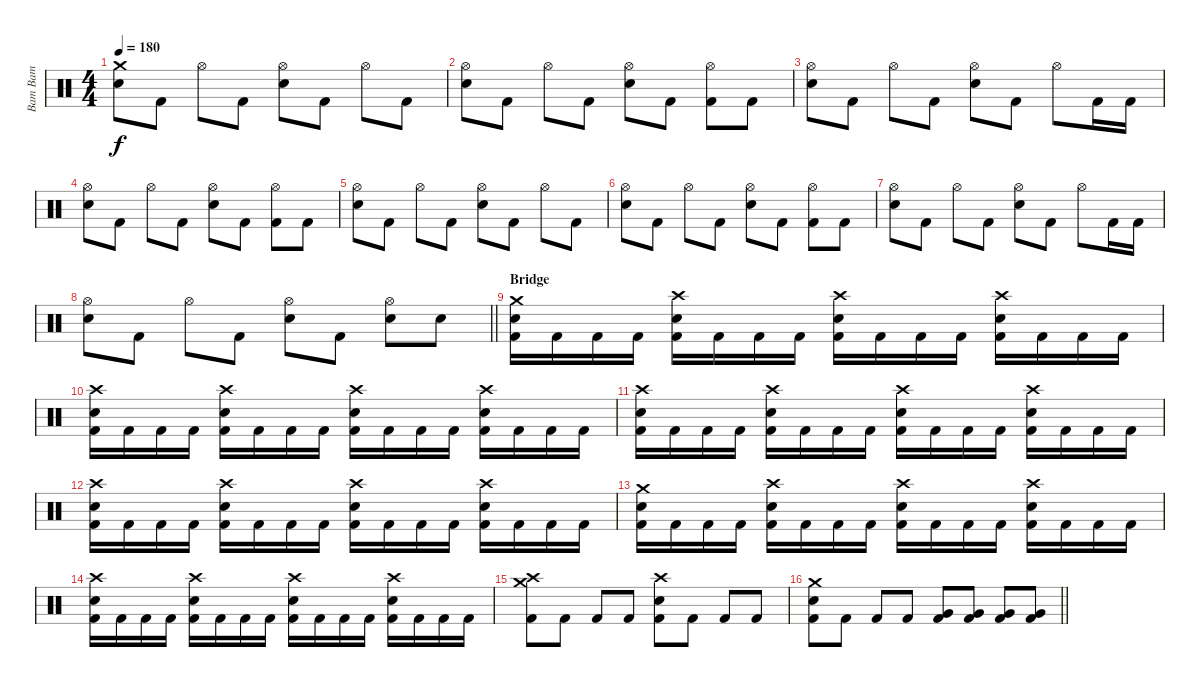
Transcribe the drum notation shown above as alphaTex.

\track ("Bam Bam" "Bam Bam") {instrument percussion}
\staff {score}
\articulation defaults
\ts (4 4)
\tempo 180
\clef neutral
\ks c
("Crash medium (hit)" "Electric Snare (hit)").8{dy f} "Kick (hit) 2".8 "Hi-Hat (open)".8 "Kick (hit) 2".8 ("Hi-Hat (open)" "Electric Snare (hit)").8 "Kick (hit) 2".8 "Hi-Hat (open)".8 "Kick (hit) 2".8 |
("Hi-Hat (open)" "Electric Snare (hit)").8 "Kick (hit) 2".8 "Hi-Hat (open)".8 "Kick (hit) 2".8 ("Hi-Hat (open)" "Electric Snare (hit)").8 "Kick (hit) 2".8 ("Hi-Hat (open)" "Kick (hit) 2").8 "Kick (hit) 2".8 |
("Hi-Hat (open)" "Electric Snare (hit)").8 "Kick (hit) 2".8 "Hi-Hat (open)".8 "Kick (hit) 2".8 ("Hi-Hat (open)" "Electric Snare (hit)").8 "Kick (hit) 2".8 "Hi-Hat (open)".8 "Kick (hit) 2".16 "Kick (hit) 2".16 |
("Hi-Hat (open)" "Electric Snare (hit)").8 "Kick (hit) 2".8 "Hi-Hat (open)".8 "Kick (hit) 2".8 ("Hi-Hat (open)" "Electric Snare (hit)").8 "Kick (hit) 2".8 ("Hi-Hat (open)" "Kick (hit) 2").8 "Kick (hit) 2".8 |
("Hi-Hat (open)" "Electric Snare (hit)").8 "Kick (hit) 2".8 "Hi-Hat (open)".8 "Kick (hit) 2".8 ("Hi-Hat (open)" "Electric Snare (hit)").8 "Kick (hit) 2".8 "Hi-Hat (open)".8 "Kick (hit) 2".8 |
("Hi-Hat (open)" "Electric Snare (hit)").8 "Kick (hit) 2".8 "Hi-Hat (open)".8 "Kick (hit) 2".8 ("Hi-Hat (open)" "Electric Snare (hit)").8 "Kick (hit) 2".8 ("Hi-Hat (open)" "Kick (hit) 2").8 "Kick (hit) 2".8 |
("Hi-Hat (open)" "Electric Snare (hit)").8 "Kick (hit) 2".8 "Hi-Hat (open)".8 "Kick (hit) 2".8 ("Hi-Hat (open)" "Electric Snare (hit)").8 "Kick (hit) 2".8 "Hi-Hat (open)".8 "Kick (hit) 2".16 "Kick (hit) 2".16 |
\barLineRight lightlight
("Hi-Hat (open)" "Electric Snare (hit)").8 "Kick (hit) 2".8 "Hi-Hat (open)".8 "Kick (hit) 2".8 ("Hi-Hat (open)" "Electric Snare (hit)").8 "Kick (hit) 2".8 ("Hi-Hat (open)" "Electric Snare (hit)").8 "Electric Snare (hit)".8 |
\section ("" "Bridge")
("Crash medium (hit)" "Electric Snare (hit)" "Kick (hit) 2").16 "Kick (hit) 2".16 "Kick (hit) 2".16 "Kick (hit) 2".16 ("Crash high (hit)" "Electric Snare (hit)" "Kick (hit) 2").16 "Kick (hit) 2".16 "Kick (hit) 2".16 "Kick (hit) 2".16 ("Crash high (hit)" "Electric Snare (hit)" "Kick (hit) 2").16 "Kick (hit) 2".16 "Kick (hit) 2".16 "Kick (hit) 2".16 ("Crash high (hit)" "Electric Snare (hit)" "Kick (hit) 2").16 "Kick (hit) 2".16 "Kick (hit) 2".16 "Kick (hit) 2".16 |
("Crash high (hit)" "Electric Snare (hit)" "Kick (hit) 2").16 "Kick (hit) 2".16 "Kick (hit) 2".16 "Kick (hit) 2".16 ("Crash high (hit)" "Electric Snare (hit)" "Kick (hit) 2").16 "Kick (hit) 2".16 "Kick (hit) 2".16 "Kick (hit) 2".16 ("Crash high (hit)" "Electric Snare (hit)" "Kick (hit) 2").16 "Kick (hit) 2".16 "Kick (hit) 2".16 "Kick (hit) 2".16 ("Crash high (hit)" "Electric Snare (hit)" "Kick (hit) 2").16 "Kick (hit) 2".16 "Kick (hit) 2".16 "Kick (hit) 2".16 |
("Crash high (hit)" "Electric Snare (hit)" "Kick (hit) 2").16 "Kick (hit) 2".16 "Kick (hit) 2".16 "Kick (hit) 2".16 ("Crash high (hit)" "Electric Snare (hit)" "Kick (hit) 2").16 "Kick (hit) 2".16 "Kick (hit) 2".16 "Kick (hit) 2".16 ("Crash high (hit)" "Electric Snare (hit)" "Kick (hit) 2").16 "Kick (hit) 2".16 "Kick (hit) 2".16 "Kick (hit) 2".16 ("Crash high (hit)" "Electric Snare (hit)" "Kick (hit) 2").16 "Kick (hit) 2".16 "Kick (hit) 2".16 "Kick (hit) 2".16 |
("Crash high (hit)" "Electric Snare (hit)" "Kick (hit) 2").16 "Kick (hit) 2".16 "Kick (hit) 2".16 "Kick (hit) 2".16 ("Crash high (hit)" "Electric Snare (hit)" "Kick (hit) 2").16 "Kick (hit) 2".16 "Kick (hit) 2".16 "Kick (hit) 2".16 ("Crash high (hit)" "Electric Snare (hit)" "Kick (hit) 2").16 "Kick (hit) 2".16 "Kick (hit) 2".16 "Kick (hit) 2".16 ("Crash high (hit)" "Electric Snare (hit)" "Kick (hit) 2").16 "Kick (hit) 2".16 "Kick (hit) 2".16 "Kick (hit) 2".16 |
("Crash medium (hit)" "Electric Snare (hit)" "Kick (hit) 2").16 "Kick (hit) 2".16 "Kick (hit) 2".16 "Kick (hit) 2".16 ("Crash high (hit)" "Electric Snare (hit)" "Kick (hit) 2").16 "Kick (hit) 2".16 "Kick (hit) 2".16 "Kick (hit) 2".16 ("Crash high (hit)" "Electric Snare (hit)" "Kick (hit) 2").16 "Kick (hit) 2".16 "Kick (hit) 2".16 "Kick (hit) 2".16 ("Crash high (hit)" "Electric Snare (hit)" "Kick (hit) 2").16 "Kick (hit) 2".16 "Kick (hit) 2".16 "Kick (hit) 2".16 |
("Crash high (hit)" "Electric Snare (hit)" "Kick (hit) 2").16 "Kick (hit) 2".16 "Kick (hit) 2".16 "Kick (hit) 2".16 ("Crash high (hit)" "Electric Snare (hit)" "Kick (hit) 2").16 "Kick (hit) 2".16 "Kick (hit) 2".16 "Kick (hit) 2".16 ("Crash high (hit)" "Electric Snare (hit)" "Kick (hit) 2").16 "Kick (hit) 2".16 "Kick (hit) 2".16 "Kick (hit) 2".16 ("Crash high (hit)" "Electric Snare (hit)" "Kick (hit) 2").16 "Kick (hit) 2".16 "Kick (hit) 2".16 "Kick (hit) 2".16 |
("Crash medium (hit)" "Crash high (hit)" "Kick (hit) 2").8 "Kick (hit) 2".8 "Kick (hit) 2".8 "Kick (hit) 2".8 ("Crash high (hit)" "Electric Snare (hit)" "Kick (hit) 2").8 "Kick (hit) 2".8 "Kick (hit) 2".8 "Kick (hit) 2".8 |
\barLineRight lightlight
("Crash medium (hit)" "Electric Snare (hit)" "Kick (hit) 2").8 "Kick (hit) 2".8 "Kick (hit) 2".8 "Kick (hit) 2".8 ("Very Low Tom (hit)" "Kick (hit) 2").8 ("Very Low Tom (hit)" "Kick (hit) 2").8 ("Very Low Tom (hit)" "Kick (hit) 2").8 ("Very Low Tom (hit)" "Kick (hit) 2").8
